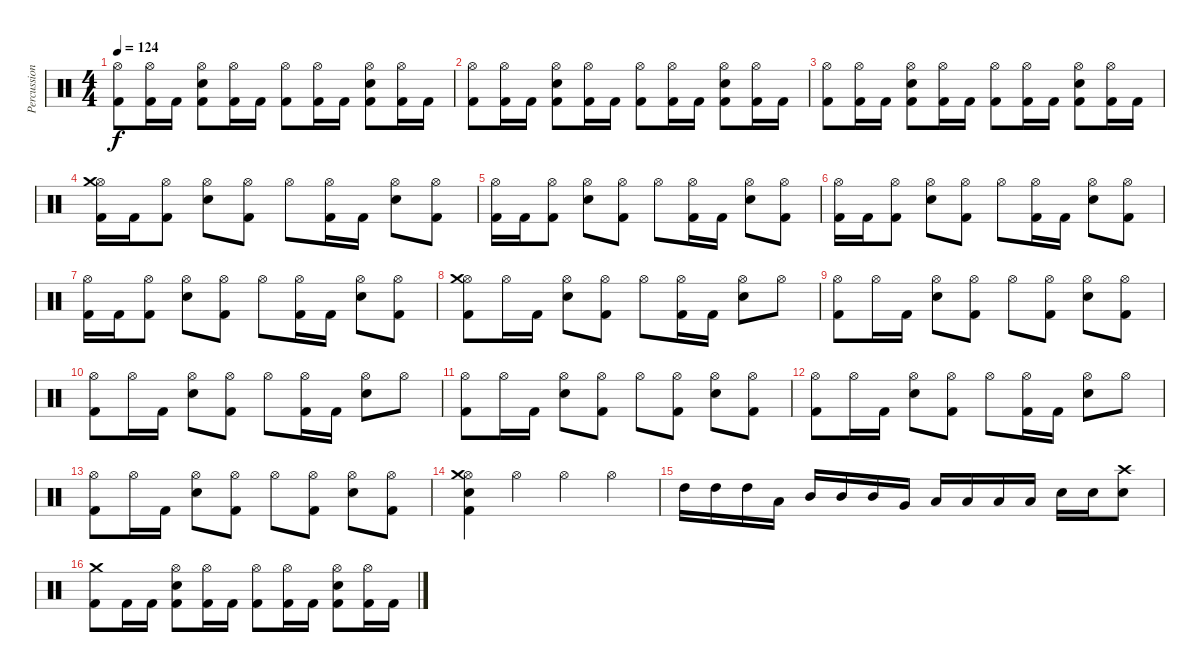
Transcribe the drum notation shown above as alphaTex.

\track ("Percussion" "Percussion") {instrument percussion}
\staff {score}
\articulation defaults
\ts (4 4)
\tempo 124
\clef neutral
\ks c
("Kick (hit) 2" "Hi-Hat (open)").8{dy f} ("Kick (hit) 2" "Hi-Hat (open)").16 "Kick (hit) 2".16 ("Kick (hit) 2" "Electric Snare (hit)" "Hi-Hat (open)").8 ("Kick (hit) 2" "Hi-Hat (open)").16 "Kick (hit) 2".16 ("Kick (hit) 2" "Hi-Hat (open)").8 ("Kick (hit) 2" "Hi-Hat (open)").16 "Kick (hit) 2".16 ("Kick (hit) 2" "Electric Snare (hit)" "Hi-Hat (open)").8 ("Kick (hit) 2" "Hi-Hat (open)").16 "Kick (hit) 2".16 |
("Kick (hit) 2" "Hi-Hat (open)").8 ("Kick (hit) 2" "Hi-Hat (open)").16 "Kick (hit) 2".16 ("Kick (hit) 2" "Electric Snare (hit)" "Hi-Hat (open)").8 ("Kick (hit) 2" "Hi-Hat (open)").16 "Kick (hit) 2".16 ("Kick (hit) 2" "Hi-Hat (open)").8 ("Kick (hit) 2" "Hi-Hat (open)").16 "Kick (hit) 2".16 ("Kick (hit) 2" "Electric Snare (hit)" "Hi-Hat (open)").8 ("Kick (hit) 2" "Hi-Hat (open)").16 "Kick (hit) 2".16 |
("Kick (hit) 2" "Hi-Hat (open)").8 ("Kick (hit) 2" "Hi-Hat (open)").16 "Kick (hit) 2".16 ("Kick (hit) 2" "Electric Snare (hit)" "Hi-Hat (open)").8 ("Kick (hit) 2" "Hi-Hat (open)").16 "Kick (hit) 2".16 ("Kick (hit) 2" "Hi-Hat (open)").8 ("Kick (hit) 2" "Hi-Hat (open)").16 "Kick (hit) 2".16 ("Kick (hit) 2" "Electric Snare (hit)" "Hi-Hat (open)").8 ("Kick (hit) 2" "Hi-Hat (open)").16 "Kick (hit) 2".16 |
("Kick (hit) 2" "Hi-Hat (open)" "Crash medium (hit)").16 "Kick (hit) 2".16 ("Kick (hit) 2" "Hi-Hat (open)").8 ("Electric Snare (hit)" "Hi-Hat (open)").8 ("Kick (hit) 2" "Hi-Hat (open)").8 "Hi-Hat (open)".8 ("Kick (hit) 2" "Hi-Hat (open)").16 "Kick (hit) 2".16 ("Electric Snare (hit)" "Hi-Hat (open)").8 ("Kick (hit) 2" "Hi-Hat (open)").8 |
("Kick (hit) 2" "Hi-Hat (open)").16 "Kick (hit) 2".16 ("Kick (hit) 2" "Hi-Hat (open)").8 ("Electric Snare (hit)" "Hi-Hat (open)").8 ("Kick (hit) 2" "Hi-Hat (open)").8 "Hi-Hat (open)".8 ("Kick (hit) 2" "Hi-Hat (open)").16 "Kick (hit) 2".16 ("Electric Snare (hit)" "Hi-Hat (open)").8 ("Kick (hit) 2" "Hi-Hat (open)").8 |
("Kick (hit) 2" "Hi-Hat (open)").16 "Kick (hit) 2".16 ("Kick (hit) 2" "Hi-Hat (open)").8 ("Electric Snare (hit)" "Hi-Hat (open)").8 ("Kick (hit) 2" "Hi-Hat (open)").8 "Hi-Hat (open)".8 ("Kick (hit) 2" "Hi-Hat (open)").16 "Kick (hit) 2".16 ("Electric Snare (hit)" "Hi-Hat (open)").8 ("Kick (hit) 2" "Hi-Hat (open)").8 |
("Kick (hit) 2" "Hi-Hat (open)").16 "Kick (hit) 2".16 ("Kick (hit) 2" "Hi-Hat (open)").8 ("Electric Snare (hit)" "Hi-Hat (open)").8 ("Kick (hit) 2" "Hi-Hat (open)").8 "Hi-Hat (open)".8 ("Kick (hit) 2" "Hi-Hat (open)").16 "Kick (hit) 2".16 ("Electric Snare (hit)" "Hi-Hat (open)").8 ("Kick (hit) 2" "Hi-Hat (open)").8 |
("Kick (hit) 2" "Hi-Hat (open)" "Crash medium (hit)").8 "Hi-Hat (open)".16 "Kick (hit) 2".16 ("Electric Snare (hit)" "Hi-Hat (open)").8 ("Kick (hit) 2" "Hi-Hat (open)").8 "Hi-Hat (open)".8 ("Kick (hit) 2" "Hi-Hat (open)").16 "Kick (hit) 2".16 ("Electric Snare (hit)" "Hi-Hat (open)").8 "Hi-Hat (open)".8 |
("Kick (hit) 2" "Hi-Hat (open)").8 "Hi-Hat (open)".16 "Kick (hit) 2".16 ("Electric Snare (hit)" "Hi-Hat (open)").8 ("Kick (hit) 2" "Hi-Hat (open)").8 "Hi-Hat (open)".8 ("Kick (hit) 2" "Hi-Hat (open)").8 ("Electric Snare (hit)" "Hi-Hat (open)").8 ("Kick (hit) 2" "Hi-Hat (open)").8 |
("Kick (hit) 2" "Hi-Hat (open)").8 "Hi-Hat (open)".16 "Kick (hit) 2".16 ("Electric Snare (hit)" "Hi-Hat (open)").8 ("Kick (hit) 2" "Hi-Hat (open)").8 "Hi-Hat (open)".8 ("Kick (hit) 2" "Hi-Hat (open)").16 "Kick (hit) 2".16 ("Electric Snare (hit)" "Hi-Hat (open)").8 "Hi-Hat (open)".8 |
("Kick (hit) 2" "Hi-Hat (open)").8 "Hi-Hat (open)".16 "Kick (hit) 2".16 ("Electric Snare (hit)" "Hi-Hat (open)").8 ("Kick (hit) 2" "Hi-Hat (open)").8 "Hi-Hat (open)".8 ("Kick (hit) 2" "Hi-Hat (open)").8 ("Electric Snare (hit)" "Hi-Hat (open)").8 ("Kick (hit) 2" "Hi-Hat (open)").8 |
("Kick (hit) 2" "Hi-Hat (open)").8 "Hi-Hat (open)".16 "Kick (hit) 2".16 ("Electric Snare (hit)" "Hi-Hat (open)").8 ("Kick (hit) 2" "Hi-Hat (open)").8 "Hi-Hat (open)".8 ("Kick (hit) 2" "Hi-Hat (open)").16 "Kick (hit) 2".16 ("Electric Snare (hit)" "Hi-Hat (open)").8 "Hi-Hat (open)".8 |
("Kick (hit) 2" "Hi-Hat (open)").8 "Hi-Hat (open)".16 "Kick (hit) 2".16 ("Electric Snare (hit)" "Hi-Hat (open)").8 ("Kick (hit) 2" "Hi-Hat (open)").8 "Hi-Hat (open)".8 ("Kick (hit) 2" "Hi-Hat (open)").8 ("Electric Snare (hit)" "Hi-Hat (open)").8 ("Kick (hit) 2" "Hi-Hat (open)").8 |
("Kick (hit) 2" "Electric Snare (hit)" "Hi-Hat (open)" "Crash medium (hit)").4 "Hi-Hat (open)".4 "Hi-Hat (open)".4 "Hi-Hat (open)".4 |
"High Tom (hit)".16 "High Tom (hit)".16 "High Tom (hit)".16 "Low Tom (hit)".16 "Mid Tom (hit)".16 "Mid Tom (hit)".16 "Mid Tom (hit)".16 "Very Low Tom (hit)".16 "Low Tom (hit)".16 "Low Tom (hit)".16 "Low Tom (hit)".16 "Low Floor Tom (hit)".16 "Electric Snare (hit)".16 "Electric Snare (hit)".16 ("Electric Snare (hit)" "Crash high (hit)").8 |
("Kick (hit) 2" "Crash medium (hit)").8 "Kick (hit) 2".16 "Kick (hit) 2".16 ("Kick (hit) 2" "Electric Snare (hit)" "Hi-Hat (open)").8 ("Kick (hit) 2" "Hi-Hat (open)").16 "Kick (hit) 2".16 ("Kick (hit) 2" "Hi-Hat (open)").8 ("Kick (hit) 2" "Hi-Hat (open)").16 "Kick (hit) 2".16 ("Kick (hit) 2" "Electric Snare (hit)" "Hi-Hat (open)").8 ("Kick (hit) 2" "Hi-Hat (open)").16 "Kick (hit) 2".16
